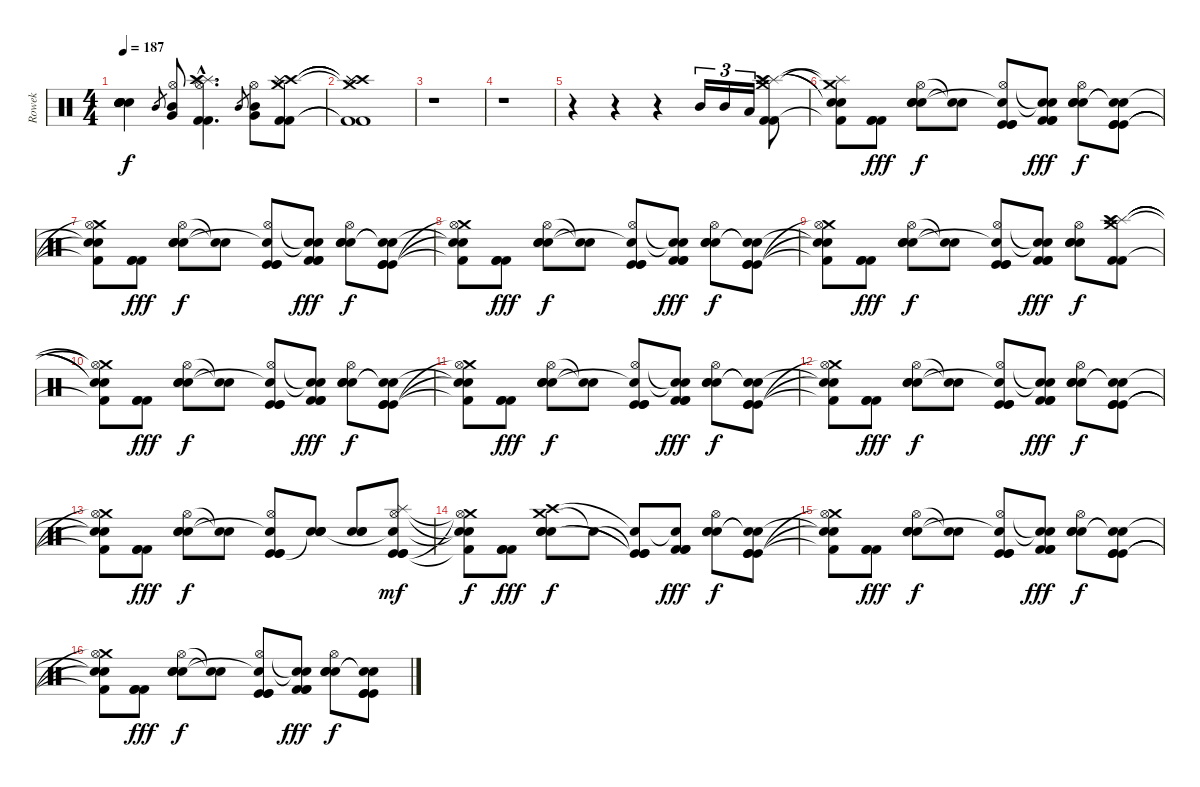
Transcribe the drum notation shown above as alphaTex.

\track ("Rowek" "Rowek") {instrument percussion}
\staff {score}
\articulation defaults
\ts (4 4)
\tempo 187
\clef neutral
\ks c
("Snare (hit)"{t} "Snare (hit)"{t} "Snare (hit)"{t} "Snare (hit)"{t} "Snare (hit)"{t} "Snare (hit)"{t}).4{dy f} "Mid Tom (hit)".8{gr} ("Hi-Hat (open)" "Mid Tom (hit)" "Very Low Tom (hit)").8 ("Splash (hit)"{hac} "Splash (hit)"{hac} "Hi-Hat (open)"{hac} "Crash high (hit)"{hac} "Kick (hit) 2"{hac} "Kick (hit) 2"{hac}).4{d} "Mid Tom (hit)".8{gr} ("Hi-Hat (open)" "Mid Tom (hit)" "Very Low Tom (hit)").8 ("Kick (hit) 2" "Crash medium (hit)" "Crash high (hit)" "Splash (hit)" "Kick (hit) 2" "Splash (hit)").8 |
("Kick (hit) 2"{t} "Crash medium (hit)"{t} "Crash high (hit)"{t} "Splash (hit)"{t} "Kick (hit) 2"{t} "Splash (hit)"{t}).1 |
r.1 |
r.1 |
r.4 r.4 r.4 "Mid Tom (hit)".16{tu (3 2)} "Mid Tom (hit)".16{tu (3 2)} "Low Tom (hit)".16{tu (3 2)} ("Splash (hit)" "Crash medium (hit)" "Splash (hit)" "Crash high (hit)" "Kick (hit) 2" "Kick (hit) 2").8 |
("Crash medium (hit)"{t} "Splash (hit)"{t} "Snare (hit)"{t} "Snare (hit)"{t} "Kick (hit) 2"{t}).8 ("Kick (hit) 2" "Kick (hit) 2" "Kick (hit) 2").8{dy fff} ("Hi-Hat (open)" "Electric Snare (hit)" "Electric Snare (hit)" "Electric Snare (hit)").8{dy f} ("Snare (hit)"{t} "Snare (hit)"{t}).8 ("Kick (hit)" "Hi-Hat (open)" "Snare (hit)"{t} "Kick (hit)" "Kick (hit)").8 ("Kick (hit) 2" "Snare (hit)"{t} "Snare (hit)"{t} "Kick (hit) 2" "Kick (hit) 2").8{dy fff} ("Hi-Hat (open)" "Electric Snare (hit)" "Electric Snare (hit)" "Electric Snare (hit)").8{dy f} ("Kick (hit)" "Snare (hit)"{t} "Snare (hit)"{t} "Kick (hit)" "Kick (hit)").8 |
("Crash medium (hit)"{t} "Hi-Hat (open)" "Snare (hit)"{t} "Snare (hit)"{t} "Kick (hit) 2"{t}).8 ("Kick (hit) 2" "Kick (hit) 2" "Kick (hit) 2").8{dy fff} ("Hi-Hat (open)" "Electric Snare (hit)" "Electric Snare (hit)" "Electric Snare (hit)").8{dy f} ("Snare (hit)"{t} "Snare (hit)"{t}).8 ("Kick (hit)" "Hi-Hat (open)" "Snare (hit)"{t} "Kick (hit)" "Kick (hit)").8 ("Kick (hit) 2" "Snare (hit)"{t} "Snare (hit)"{t} "Kick (hit) 2" "Kick (hit) 2").8{dy fff} ("Hi-Hat (open)" "Electric Snare (hit)" "Electric Snare (hit)" "Electric Snare (hit)").8{dy f} ("Kick (hit)" "Snare (hit)"{t} "Snare (hit)"{t} "Kick (hit)" "Kick (hit)").8 |
("Crash medium (hit)"{t} "Hi-Hat (open)" "Snare (hit)"{t} "Snare (hit)"{t} "Kick (hit) 2"{t}).8 ("Kick (hit) 2" "Kick (hit) 2" "Kick (hit) 2").8{dy fff} ("Hi-Hat (open)" "Electric Snare (hit)" "Electric Snare (hit)" "Electric Snare (hit)").8{dy f} ("Snare (hit)"{t} "Snare (hit)"{t}).8 ("Kick (hit)" "Hi-Hat (open)" "Snare (hit)"{t} "Kick (hit)" "Kick (hit)").8 ("Kick (hit) 2" "Snare (hit)"{t} "Snare (hit)"{t} "Kick (hit) 2" "Kick (hit) 2").8{dy fff} ("Hi-Hat (open)" "Electric Snare (hit)" "Electric Snare (hit)" "Electric Snare (hit)").8{dy f} ("Kick (hit)" "Snare (hit)"{t} "Snare (hit)"{t} "Kick (hit)" "Kick (hit)").8 |
("Crash medium (hit)"{t} "Hi-Hat (open)" "Snare (hit)"{t} "Snare (hit)"{t} "Kick (hit) 2"{t}).8 ("Kick (hit) 2" "Kick (hit) 2" "Kick (hit) 2").8{dy fff} ("Hi-Hat (open)" "Electric Snare (hit)" "Electric Snare (hit)" "Electric Snare (hit)").8{dy f} ("Snare (hit)"{t} "Snare (hit)"{t}).8 ("Kick (hit)" "Hi-Hat (open)" "Snare (hit)"{t} "Kick (hit)" "Kick (hit)").8 ("Kick (hit) 2" "Snare (hit)"{t} "Snare (hit)"{t} "Kick (hit) 2" "Kick (hit) 2").8{dy fff} ("Hi-Hat (open)" "Electric Snare (hit)" "Electric Snare (hit)" "Electric Snare (hit)").8{dy f} ("Splash (hit)" "Crash medium (hit)" "Splash (hit)" "Crash high (hit)" "Kick (hit) 2" "Kick (hit) 2").8 |
("Crash medium (hit)"{t} "Hi-Hat (open)"{t} "Snare (hit)"{t} "Snare (hit)"{t} "Kick (hit) 2"{t}).8 ("Kick (hit) 2" "Kick (hit) 2" "Kick (hit) 2").8{dy fff} ("Hi-Hat (open)" "Electric Snare (hit)" "Electric Snare (hit)" "Electric Snare (hit)").8{dy f} ("Snare (hit)"{t} "Snare (hit)"{t}).8 ("Kick (hit)" "Hi-Hat (open)" "Snare (hit)"{t} "Kick (hit)" "Kick (hit)").8 ("Kick (hit) 2" "Snare (hit)"{t} "Snare (hit)"{t} "Kick (hit) 2" "Kick (hit) 2").8{dy fff} ("Hi-Hat (open)" "Electric Snare (hit)" "Electric Snare (hit)" "Electric Snare (hit)").8{dy f} ("Kick (hit)" "Snare (hit)"{t} "Snare (hit)"{t} "Kick (hit)" "Kick (hit)").8 |
("Crash medium (hit)"{t} "Hi-Hat (open)" "Snare (hit)"{t} "Snare (hit)"{t} "Kick (hit) 2"{t}).8 ("Kick (hit) 2" "Kick (hit) 2" "Kick (hit) 2").8{dy fff} ("Hi-Hat (open)" "Electric Snare (hit)" "Electric Snare (hit)" "Electric Snare (hit)").8{dy f} ("Snare (hit)"{t} "Snare (hit)"{t}).8 ("Kick (hit)" "Hi-Hat (open)" "Snare (hit)"{t} "Kick (hit)" "Kick (hit)").8 ("Kick (hit) 2" "Snare (hit)"{t} "Snare (hit)"{t} "Kick (hit) 2" "Kick (hit) 2").8{dy fff} ("Hi-Hat (open)" "Electric Snare (hit)" "Electric Snare (hit)" "Electric Snare (hit)").8{dy f} ("Kick (hit)" "Snare (hit)"{t} "Snare (hit)"{t} "Kick (hit)" "Kick (hit)").8 |
("Crash medium (hit)"{t} "Hi-Hat (open)" "Snare (hit)"{t} "Snare (hit)"{t} "Kick (hit) 2"{t}).8 ("Kick (hit) 2" "Kick (hit) 2" "Kick (hit) 2").8{dy fff} ("Hi-Hat (open)" "Electric Snare (hit)" "Electric Snare (hit)" "Electric Snare (hit)").8{dy f} ("Snare (hit)"{t} "Snare (hit)"{t}).8 ("Kick (hit)" "Hi-Hat (open)" "Snare (hit)"{t} "Kick (hit)" "Kick (hit)").8 ("Kick (hit) 2" "Snare (hit)"{t} "Snare (hit)"{t} "Kick (hit) 2" "Kick (hit) 2").8{dy fff} ("Hi-Hat (open)" "Electric Snare (hit)" "Electric Snare (hit)" "Electric Snare (hit)").8{dy f} ("Kick (hit)" "Snare (hit)"{t} "Snare (hit)"{t} "Kick (hit)" "Kick (hit)").8 |
("Crash medium (hit)"{t} "Hi-Hat (open)" "Snare (hit)"{t} "Snare (hit)"{t} "Kick (hit) 2"{t}).8 ("Kick (hit) 2" "Kick (hit) 2" "Kick (hit) 2").8{dy fff} ("Hi-Hat (open)" "Electric Snare (hit)" "Electric Snare (hit)" "Electric Snare (hit)").8{dy f} ("Snare (hit)"{t} "Snare (hit)"{t}).8 ("Kick (hit)" "Hi-Hat (open)" "Snare (hit)"{t} "Kick (hit)" "Kick (hit)").8 ("Snare (hit)"{t} "Electric Snare (hit)" "Electric Snare (hit)" "Electric Snare (hit)").8 ("Electric Snare (hit)" "Electric Snare (hit)" "Electric Snare (hit)").8 ("Kick (hit)" "Splash (hit)" "Hi-Hat (open)" "Snare (hit)"{t} "Kick (hit)" "Kick (hit)").8{dy mf} |
("Crash medium (hit)"{t} "Hi-Hat (open)"{t} "Snare (hit)"{t} "Snare (hit)"{t} "Kick (hit) 2"{t}).8{dy f} ("Kick (hit) 2" "Kick (hit) 2" "Kick (hit) 2").8{dy fff} ("Crash medium (hit)" "Crash high (hit)" "Electric Snare (hit)" "Electric Snare (hit)" "Electric Snare (hit)").8{dy f} "Snare (hit)"{t}.8 ("Kick (hit)"{t} "Snare (hit)"{t} "Kick (hit)"{t} "Kick (hit)"{t}).8 ("Kick (hit) 2" "Snare (hit)"{t} "Kick (hit) 2" "Kick (hit) 2").8{dy fff} ("Hi-Hat (open)" "Electric Snare (hit)" "Electric Snare (hit)" "Electric Snare (hit)").8{dy f} ("Kick (hit)" "Snare (hit)"{t} "Snare (hit)"{t} "Kick (hit)" "Kick (hit)").8 |
("Crash medium (hit)"{t} "Hi-Hat (open)" "Snare (hit)"{t} "Snare (hit)"{t} "Kick (hit) 2"{t}).8 ("Kick (hit) 2" "Kick (hit) 2" "Kick (hit) 2").8{dy fff} ("Hi-Hat (open)" "Electric Snare (hit)" "Electric Snare (hit)" "Electric Snare (hit)").8{dy f} ("Snare (hit)"{t} "Snare (hit)"{t}).8 ("Kick (hit)" "Hi-Hat (open)" "Snare (hit)"{t} "Kick (hit)" "Kick (hit)").8 ("Kick (hit) 2" "Snare (hit)"{t} "Snare (hit)"{t} "Kick (hit) 2" "Kick (hit) 2").8{dy fff} ("Hi-Hat (open)" "Electric Snare (hit)" "Electric Snare (hit)" "Electric Snare (hit)").8{dy f} ("Kick (hit)" "Snare (hit)"{t} "Snare (hit)"{t} "Kick (hit)" "Kick (hit)").8 |
("Crash medium (hit)"{t} "Hi-Hat (open)" "Snare (hit)"{t} "Snare (hit)"{t} "Kick (hit) 2"{t}).8 ("Kick (hit) 2" "Kick (hit) 2" "Kick (hit) 2").8{dy fff} ("Hi-Hat (open)" "Electric Snare (hit)" "Electric Snare (hit)" "Electric Snare (hit)").8{dy f} ("Snare (hit)"{t} "Snare (hit)"{t}).8 ("Kick (hit)" "Hi-Hat (open)" "Snare (hit)"{t} "Kick (hit)" "Kick (hit)").8 ("Kick (hit) 2" "Snare (hit)"{t} "Snare (hit)"{t} "Kick (hit) 2" "Kick (hit) 2").8{dy fff} ("Hi-Hat (open)" "Electric Snare (hit)" "Electric Snare (hit)" "Electric Snare (hit)").8{dy f} ("Kick (hit)" "Snare (hit)"{t} "Snare (hit)"{t} "Kick (hit)" "Kick (hit)").8
